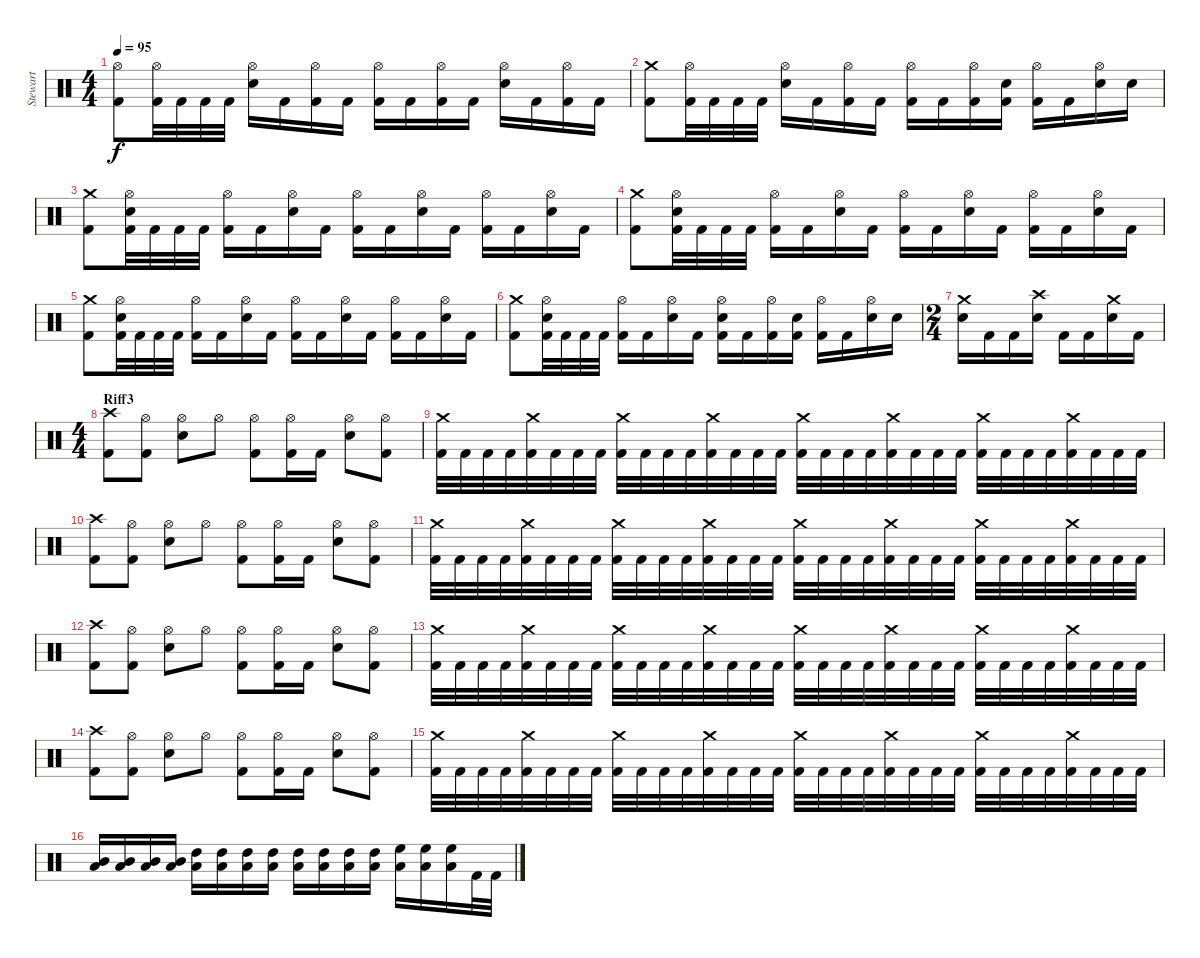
\track ("Stewart" "Stewart") {instrument percussion}
\staff {score}
\articulation defaults
\ts (4 4)
\tempo 95
\clef neutral
\ks c
("Hi-Hat (open)" "Kick (hit) 2").8{dy f} ("Hi-Hat (open)" "Kick (hit) 2").32 "Kick (hit) 2".32 "Kick (hit) 2".32 "Kick (hit) 2".32 ("Hi-Hat (open)" "Electric Snare (hit)").16 "Kick (hit) 2".16 ("Hi-Hat (open)" "Kick (hit) 2").16 "Kick (hit) 2".16 ("Hi-Hat (open)" "Kick (hit) 2").16 "Kick (hit) 2".16 ("Hi-Hat (open)" "Kick (hit) 2").16 "Kick (hit) 2".16 ("Hi-Hat (open)" "Electric Snare (hit)").16 "Kick (hit) 2".16 ("Hi-Hat (open)" "Kick (hit) 2").16 "Kick (hit) 2".16 |
("Crash medium (hit)" "Kick (hit) 2").8 ("Hi-Hat (open)" "Kick (hit) 2").32 "Kick (hit) 2".32 "Kick (hit) 2".32 "Kick (hit) 2".32 ("Hi-Hat (open)" "Electric Snare (hit)").16 "Kick (hit) 2".16 ("Hi-Hat (open)" "Kick (hit) 2").16 "Kick (hit) 2".16 ("Hi-Hat (open)" "Kick (hit) 2").16 "Kick (hit) 2".16 ("Hi-Hat (open)" "Kick (hit) 2").16 ("Electric Snare (hit)" "Kick (hit) 2").16 ("Hi-Hat (open)" "Kick (hit) 2").16 "Kick (hit) 2".16 ("Hi-Hat (open)" "Electric Snare (hit)").16 "Electric Snare (hit)".16 |
("Crash medium (hit)" "Kick (hit) 2").8 ("Hi-Hat (open)" "Electric Snare (hit)" "Kick (hit) 2").32 "Kick (hit) 2".32 "Kick (hit) 2".32 "Kick (hit) 2".32 ("Hi-Hat (open)" "Kick (hit) 2").16 "Kick (hit) 2".16 ("Hi-Hat (open)" "Electric Snare (hit)").16 "Kick (hit) 2".16 ("Hi-Hat (open)" "Kick (hit) 2").16 "Kick (hit) 2".16 ("Hi-Hat (open)" "Electric Snare (hit)").16 "Kick (hit) 2".16 ("Hi-Hat (open)" "Kick (hit) 2").16 "Kick (hit) 2".16 ("Hi-Hat (open)" "Electric Snare (hit)").16 "Kick (hit) 2".16 |
("Crash medium (hit)" "Kick (hit) 2").8 ("Hi-Hat (open)" "Electric Snare (hit)" "Kick (hit) 2").32 "Kick (hit) 2".32 "Kick (hit) 2".32 "Kick (hit) 2".32 ("Hi-Hat (open)" "Kick (hit) 2").16 "Kick (hit) 2".16 ("Hi-Hat (open)" "Electric Snare (hit)").16 "Kick (hit) 2".16 ("Hi-Hat (open)" "Kick (hit) 2").16 "Kick (hit) 2".16 ("Hi-Hat (open)" "Electric Snare (hit)").16 "Kick (hit) 2".16 ("Hi-Hat (open)" "Kick (hit) 2").16 "Kick (hit) 2".16 ("Hi-Hat (open)" "Electric Snare (hit)").16 "Kick (hit) 2".16 |
("Crash medium (hit)" "Kick (hit) 2").8 ("Hi-Hat (open)" "Electric Snare (hit)" "Kick (hit) 2").32 "Kick (hit) 2".32 "Kick (hit) 2".32 "Kick (hit) 2".32 ("Hi-Hat (open)" "Kick (hit) 2").16 "Kick (hit) 2".16 ("Hi-Hat (open)" "Electric Snare (hit)").16 "Kick (hit) 2".16 ("Hi-Hat (open)" "Kick (hit) 2").16 "Kick (hit) 2".16 ("Hi-Hat (open)" "Electric Snare (hit)").16 "Kick (hit) 2".16 ("Hi-Hat (open)" "Kick (hit) 2").16 "Kick (hit) 2".16 ("Hi-Hat (open)" "Electric Snare (hit)").16 "Kick (hit) 2".16 |
("Crash medium (hit)" "Kick (hit) 2").8 ("Hi-Hat (open)" "Electric Snare (hit)" "Kick (hit) 2").32 "Kick (hit) 2".32 "Kick (hit) 2".32 "Kick (hit) 2".32 ("Hi-Hat (open)" "Kick (hit) 2").16 "Kick (hit) 2".16 ("Hi-Hat (open)" "Electric Snare (hit)").16 "Kick (hit) 2".16 ("Hi-Hat (open)" "Electric Snare (hit)" "Kick (hit) 2").16 "Kick (hit) 2".16 ("Hi-Hat (open)" "Kick (hit) 2").16 ("Electric Snare (hit)" "Kick (hit) 2").16 ("Hi-Hat (open)" "Kick (hit) 2").16 "Kick (hit) 2".16 ("Hi-Hat (open)" "Electric Snare (hit)").16 "Electric Snare (hit)".16 |
\ts (2 4)
("Crash medium (hit)" "Electric Snare (hit)").16 "Kick (hit) 2".16 "Kick (hit) 2".16 ("Crash high (hit)" "Electric Snare (hit)").16 "Kick (hit) 2".16 "Kick (hit) 2".16 ("Crash medium (hit)" "Electric Snare (hit)").16 "Kick (hit) 2".16 |
\ts (4 4)
\section ("" "Riff3")
("Crash high (hit)" "Kick (hit) 2").8 ("Hi-Hat (open)" "Kick (hit) 2").8 ("Hi-Hat (open)" "Electric Snare (hit)").8 "Hi-Hat (open)".8 ("Hi-Hat (open)" "Kick (hit) 2").8 ("Hi-Hat (open)" "Kick (hit) 2").16 "Kick (hit) 2".16 ("Hi-Hat (open)" "Electric Snare (hit)").8 ("Hi-Hat (open)" "Kick (hit) 2").8 |
("Crash medium (hit)" "Kick (hit) 2").32 "Kick (hit) 2".32 "Kick (hit) 2".32 "Kick (hit) 2".32 ("Crash medium (hit)" "Kick (hit) 2").32 "Kick (hit) 2".32 "Kick (hit) 2".32 "Kick (hit) 2".32 ("Crash medium (hit)" "Kick (hit) 2").32 "Kick (hit) 2".32 "Kick (hit) 2".32 "Kick (hit) 2".32 ("Crash medium (hit)" "Kick (hit) 2").32 "Kick (hit) 2".32 "Kick (hit) 2".32 "Kick (hit) 2".32 ("Crash medium (hit)" "Kick (hit) 2").32 "Kick (hit) 2".32 "Kick (hit) 2".32 "Kick (hit) 2".32 ("Crash medium (hit)" "Kick (hit) 2").32 "Kick (hit) 2".32 "Kick (hit) 2".32 "Kick (hit) 2".32 ("Crash medium (hit)" "Kick (hit) 2").32 "Kick (hit) 2".32 "Kick (hit) 2".32 "Kick (hit) 2".32 ("Crash medium (hit)" "Kick (hit) 2").32 "Kick (hit) 2".32 "Kick (hit) 2".32 "Kick (hit) 2".32 |
("Crash high (hit)" "Kick (hit) 2").8 ("Hi-Hat (open)" "Kick (hit) 2").8 ("Hi-Hat (open)" "Electric Snare (hit)").8 "Hi-Hat (open)".8 ("Hi-Hat (open)" "Kick (hit) 2").8 ("Hi-Hat (open)" "Kick (hit) 2").16 "Kick (hit) 2".16 ("Hi-Hat (open)" "Electric Snare (hit)").8 ("Hi-Hat (open)" "Kick (hit) 2").8 |
("Crash medium (hit)" "Kick (hit) 2").32 "Kick (hit) 2".32 "Kick (hit) 2".32 "Kick (hit) 2".32 ("Crash medium (hit)" "Kick (hit) 2").32 "Kick (hit) 2".32 "Kick (hit) 2".32 "Kick (hit) 2".32 ("Crash medium (hit)" "Kick (hit) 2").32 "Kick (hit) 2".32 "Kick (hit) 2".32 "Kick (hit) 2".32 ("Crash medium (hit)" "Kick (hit) 2").32 "Kick (hit) 2".32 "Kick (hit) 2".32 "Kick (hit) 2".32 ("Crash medium (hit)" "Kick (hit) 2").32 "Kick (hit) 2".32 "Kick (hit) 2".32 "Kick (hit) 2".32 ("Crash medium (hit)" "Kick (hit) 2").32 "Kick (hit) 2".32 "Kick (hit) 2".32 "Kick (hit) 2".32 ("Crash medium (hit)" "Kick (hit) 2").32 "Kick (hit) 2".32 "Kick (hit) 2".32 "Kick (hit) 2".32 ("Crash medium (hit)" "Kick (hit) 2").32 "Kick (hit) 2".32 "Kick (hit) 2".32 "Kick (hit) 2".32 |
("Crash high (hit)" "Kick (hit) 2").8 ("Hi-Hat (open)" "Kick (hit) 2").8 ("Hi-Hat (open)" "Electric Snare (hit)").8 "Hi-Hat (open)".8 ("Hi-Hat (open)" "Kick (hit) 2").8 ("Hi-Hat (open)" "Kick (hit) 2").16 "Kick (hit) 2".16 ("Hi-Hat (open)" "Electric Snare (hit)").8 ("Hi-Hat (open)" "Kick (hit) 2").8 |
("Crash medium (hit)" "Kick (hit) 2").32 "Kick (hit) 2".32 "Kick (hit) 2".32 "Kick (hit) 2".32 ("Crash medium (hit)" "Kick (hit) 2").32 "Kick (hit) 2".32 "Kick (hit) 2".32 "Kick (hit) 2".32 ("Crash medium (hit)" "Kick (hit) 2").32 "Kick (hit) 2".32 "Kick (hit) 2".32 "Kick (hit) 2".32 ("Crash medium (hit)" "Kick (hit) 2").32 "Kick (hit) 2".32 "Kick (hit) 2".32 "Kick (hit) 2".32 ("Crash medium (hit)" "Kick (hit) 2").32 "Kick (hit) 2".32 "Kick (hit) 2".32 "Kick (hit) 2".32 ("Crash medium (hit)" "Kick (hit) 2").32 "Kick (hit) 2".32 "Kick (hit) 2".32 "Kick (hit) 2".32 ("Crash medium (hit)" "Kick (hit) 2").32 "Kick (hit) 2".32 "Kick (hit) 2".32 "Kick (hit) 2".32 ("Crash medium (hit)" "Kick (hit) 2").32 "Kick (hit) 2".32 "Kick (hit) 2".32 "Kick (hit) 2".32 |
("Crash high (hit)" "Kick (hit) 2").8 ("Hi-Hat (open)" "Kick (hit) 2").8 ("Hi-Hat (open)" "Electric Snare (hit)").8 "Hi-Hat (open)".8 ("Hi-Hat (open)" "Kick (hit) 2").8 ("Hi-Hat (open)" "Kick (hit) 2").16 "Kick (hit) 2".16 ("Hi-Hat (open)" "Electric Snare (hit)").8 ("Hi-Hat (open)" "Kick (hit) 2").8 |
("Crash medium (hit)" "Kick (hit) 2").32 "Kick (hit) 2".32 "Kick (hit) 2".32 "Kick (hit) 2".32 ("Crash medium (hit)" "Kick (hit) 2").32 "Kick (hit) 2".32 "Kick (hit) 2".32 "Kick (hit) 2".32 ("Crash medium (hit)" "Kick (hit) 2").32 "Kick (hit) 2".32 "Kick (hit) 2".32 "Kick (hit) 2".32 ("Crash medium (hit)" "Kick (hit) 2").32 "Kick (hit) 2".32 "Kick (hit) 2".32 "Kick (hit) 2".32 ("Crash medium (hit)" "Kick (hit) 2").32 "Kick (hit) 2".32 "Kick (hit) 2".32 "Kick (hit) 2".32 ("Crash medium (hit)" "Kick (hit) 2").32 "Kick (hit) 2".32 "Kick (hit) 2".32 "Kick (hit) 2".32 ("Crash medium (hit)" "Kick (hit) 2").32 "Kick (hit) 2".32 "Kick (hit) 2".32 "Kick (hit) 2".32 ("Crash medium (hit)" "Kick (hit) 2").32 "Kick (hit) 2".32 "Kick (hit) 2".32 "Kick (hit) 2".32 |
("Mid Tom (hit)" "Low Tom (hit)").16 ("Mid Tom (hit)" "Low Tom (hit)").16 ("Mid Tom (hit)" "Low Tom (hit)").16 ("Mid Tom (hit)" "Low Tom (hit)").16 ("High Tom (hit)" "Low Tom (hit)").16 ("High Tom (hit)" "Low Tom (hit)").16 ("High Tom (hit)" "Low Tom (hit)").16 ("High Tom (hit)" "Low Tom (hit)").16 ("High Tom (hit)" "Low Tom (hit)").16 ("High Tom (hit)" "Low Tom (hit)").16 ("High Tom (hit)" "Low Tom (hit)").16 ("High Tom (hit)" "Low Tom (hit)").16 ("High Floor Tom (hit)" "Low Tom (hit)").16 ("High Floor Tom (hit)" "Low Tom (hit)").16 ("High Floor Tom (hit)" "Low Tom (hit)").16 "Kick (hit) 2".32 "Kick (hit) 2".32
